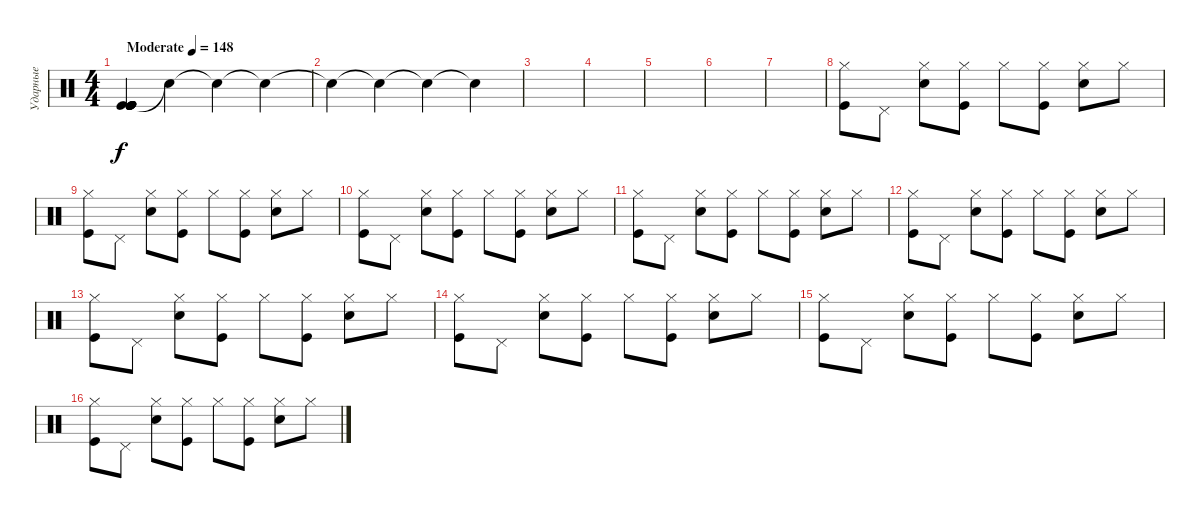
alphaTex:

\track ("Ударные" "Ударные") {instrument percussion}
\staff {score}
\articulation defaults
\ts (4 4)
\tempo (148 "Moderate")
\clef neutral
\ks c
("Kick (hit)" "Kick (hit)" "Kick (hit)" "Kick (hit)" "Kick (hit)" "Kick (hit)").4{dy f} "Snare (hit)"{t}.4 "Snare (hit)"{t}.4 "Snare (hit)"{t}.4 |
"Snare (hit)"{t}.4 "Snare (hit)"{t}.4 "Snare (hit)"{t}.4 "Snare (hit)"{t}.4 |
|
|
|
|
|
("Hi-Hat (closed)" "Kick (hit)").8 "Pedal Hi-Hat (hit)".8 ("Hi-Hat (closed)" "Snare (hit) 2").8 ("Hi-Hat (closed)" "Kick (hit)").8 "Hi-Hat (closed)".8 ("Hi-Hat (closed)" "Kick (hit)").8 ("Hi-Hat (closed)" "Snare (hit) 2").8 "Hi-Hat (closed)".8 |
("Hi-Hat (closed)" "Kick (hit)").8 "Pedal Hi-Hat (hit)".8 ("Hi-Hat (closed)" "Snare (hit) 2").8 ("Hi-Hat (closed)" "Kick (hit)").8 "Hi-Hat (closed)".8 ("Hi-Hat (closed)" "Kick (hit)").8 ("Hi-Hat (closed)" "Snare (hit) 2").8 "Hi-Hat (closed)".8 |
("Hi-Hat (closed)" "Kick (hit)").8 "Pedal Hi-Hat (hit)".8 ("Hi-Hat (closed)" "Snare (hit) 2").8 ("Hi-Hat (closed)" "Kick (hit)").8 "Hi-Hat (closed)".8 ("Hi-Hat (closed)" "Kick (hit)").8 ("Hi-Hat (closed)" "Snare (hit) 2").8 "Hi-Hat (closed)".8 |
("Hi-Hat (closed)" "Kick (hit)").8 "Pedal Hi-Hat (hit)".8 ("Hi-Hat (closed)" "Snare (hit) 2").8 ("Hi-Hat (closed)" "Kick (hit)").8 "Hi-Hat (closed)".8 ("Hi-Hat (closed)" "Kick (hit)").8 ("Hi-Hat (closed)" "Snare (hit) 2").8 "Hi-Hat (closed)".8 |
("Hi-Hat (closed)" "Kick (hit)").8 "Pedal Hi-Hat (hit)".8 ("Hi-Hat (closed)" "Snare (hit) 2").8 ("Hi-Hat (closed)" "Kick (hit)").8 "Hi-Hat (closed)".8 ("Hi-Hat (closed)" "Kick (hit)").8 ("Hi-Hat (closed)" "Snare (hit) 2").8 "Hi-Hat (closed)".8 |
("Hi-Hat (closed)" "Kick (hit)").8 "Pedal Hi-Hat (hit)".8 ("Hi-Hat (closed)" "Snare (hit) 2").8 ("Hi-Hat (closed)" "Kick (hit)").8 "Hi-Hat (closed)".8 ("Hi-Hat (closed)" "Kick (hit)").8 ("Hi-Hat (closed)" "Snare (hit) 2").8 "Hi-Hat (closed)".8 |
("Hi-Hat (closed)" "Kick (hit)").8 "Pedal Hi-Hat (hit)".8 ("Hi-Hat (closed)" "Snare (hit) 2").8 ("Hi-Hat (closed)" "Kick (hit)").8 "Hi-Hat (closed)".8 ("Hi-Hat (closed)" "Kick (hit)").8 ("Hi-Hat (closed)" "Snare (hit) 2").8 "Hi-Hat (closed)".8 |
("Hi-Hat (closed)" "Kick (hit)").8 "Pedal Hi-Hat (hit)".8 ("Hi-Hat (closed)" "Snare (hit) 2").8 ("Hi-Hat (closed)" "Kick (hit)").8 "Hi-Hat (closed)".8 ("Hi-Hat (closed)" "Kick (hit)").8 ("Hi-Hat (closed)" "Snare (hit) 2").8 "Hi-Hat (closed)".8 |
("Hi-Hat (closed)" "Kick (hit)").8 "Pedal Hi-Hat (hit)".8 ("Hi-Hat (closed)" "Snare (hit) 2").8 ("Hi-Hat (closed)" "Kick (hit)").8 "Hi-Hat (closed)".8 ("Hi-Hat (closed)" "Kick (hit)").8 ("Hi-Hat (closed)" "Snare (hit) 2").8 "Hi-Hat (closed)".8
